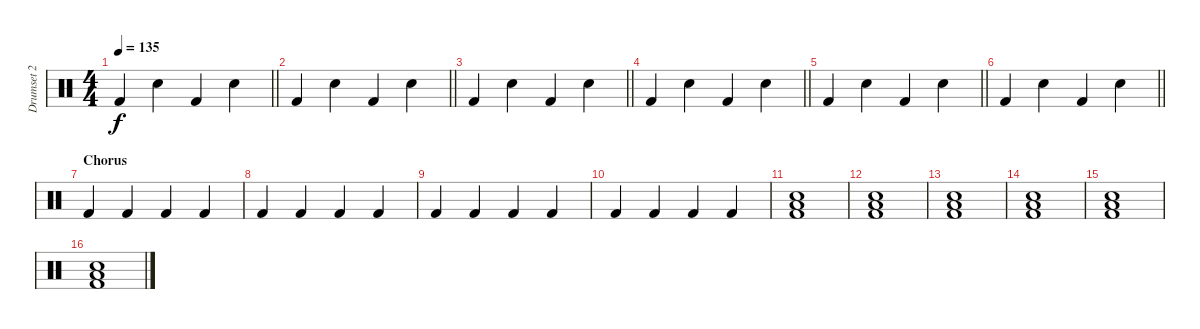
\track ("Drumset 2" "Drumset 2") {instrument percussion}
\staff {score}
\articulation defaults
\ts (4 4)
\tempo 135
\clef neutral
\barLineRight lightlight
\ks c "Kick (hit) 2".4{dy f} "Electric Snare (hit)".4 "Kick (hit) 2".4 "Electric Snare (hit)".4
|
\barLineRight lightlight "Kick (hit) 2".4 "Electric Snare (hit)".4 "Kick (hit) 2".4 "Electric Snare (hit)".4
|
\barLineRight lightlight "Kick (hit) 2".4 "Electric Snare (hit)".4 "Kick (hit) 2".4 "Electric Snare (hit)".4
|
\barLineRight lightlight "Kick (hit) 2".4 "Electric Snare (hit)".4 "Kick (hit) 2".4 "Electric Snare (hit)".4
|
\barLineRight lightlight "Kick (hit) 2".4 "Electric Snare (hit)".4 "Kick (hit) 2".4 "Electric Snare (hit)".4
|
\barLineRight lightlight "Kick (hit) 2".4 "Electric Snare (hit)".4 "Kick (hit) 2".4 "Electric Snare (hit)".4
|
\section ("" "Chorus")
"Kick (hit) 2".4 "Kick (hit) 2".4 "Kick (hit) 2".4 "Kick (hit) 2".4 |
"Kick (hit) 2".4 "Kick (hit) 2".4 "Kick (hit) 2".4 "Kick (hit) 2".4 |
"Kick (hit) 2".4 "Kick (hit) 2".4 "Kick (hit) 2".4 "Kick (hit) 2".4 |
"Kick (hit) 2".4 "Kick (hit) 2".4 "Kick (hit) 2".4 "Kick (hit) 2".4 |
("Electric Snare (hit)" "Low Floor Tom (hit)" "Kick (hit) 2").1 |
("Electric Snare (hit)" "Low Floor Tom (hit)" "Kick (hit) 2").1 |
("Electric Snare (hit)" "Low Floor Tom (hit)" "Kick (hit) 2").1 |
("Electric Snare (hit)" "Low Floor Tom (hit)" "Kick (hit) 2").1 |
("Electric Snare (hit)" "Low Floor Tom (hit)" "Kick (hit) 2").1 |
("Electric Snare (hit)" "Low Floor Tom (hit)" "Kick (hit) 2").1
